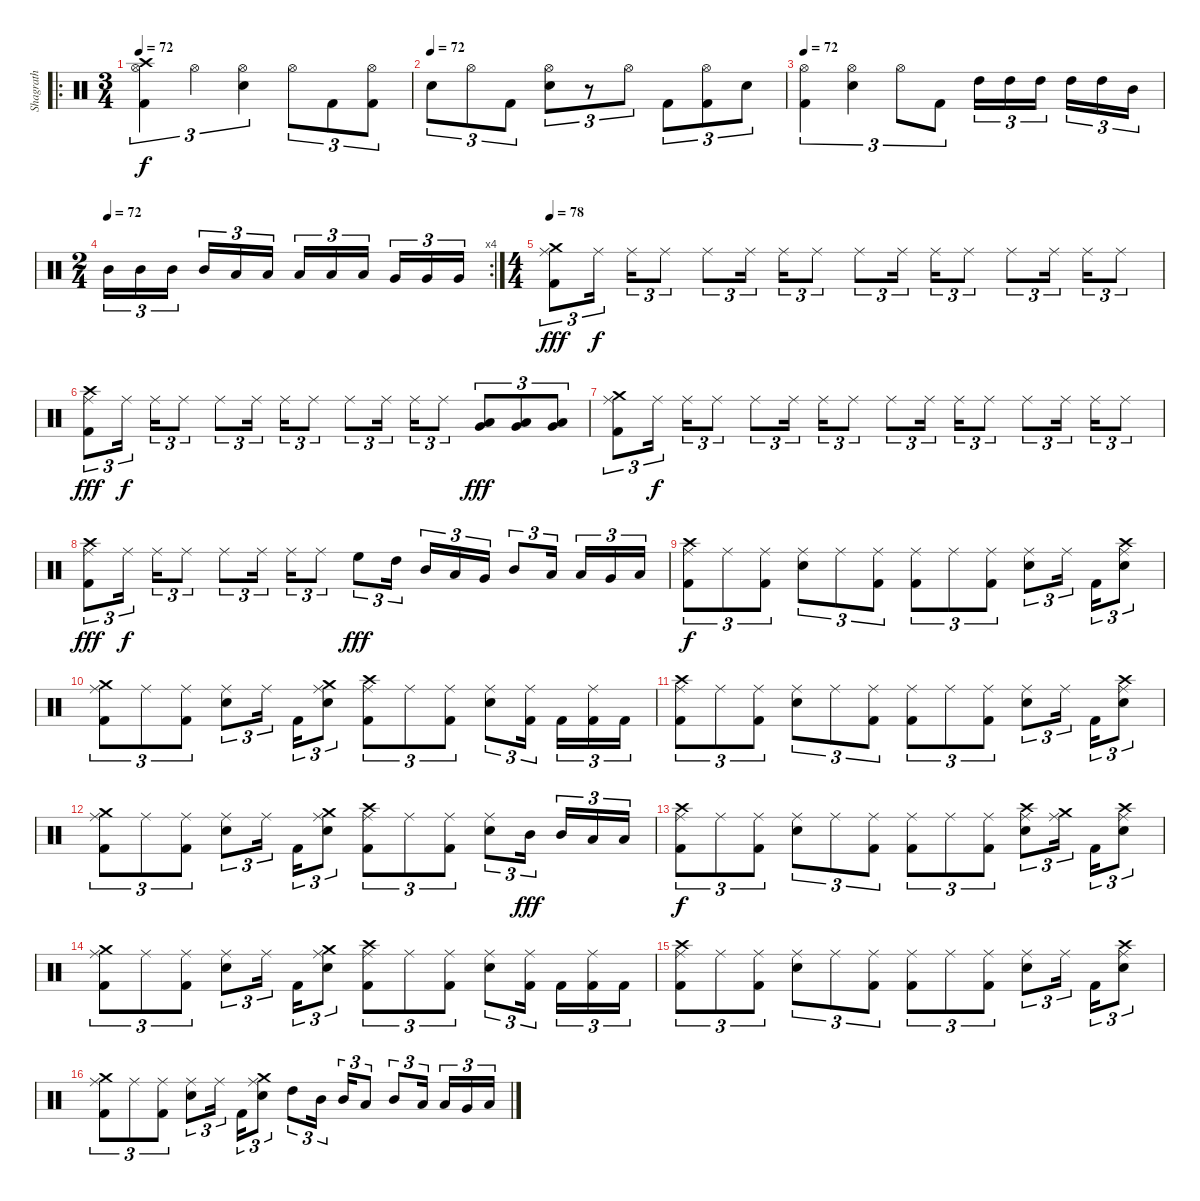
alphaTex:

\track ("Shagrath" "Shagrath") {instrument percussion}
\staff {score}
\articulation defaults
\ro
\ts (3 4)
\tempo 72
\clef neutral
\ks c
("Crash high (hit)" "Hi-Hat (open)" "Kick (hit) 2").4{tu (3 2) dy f} "Hi-Hat (open)".4{tu (3 2)} ("Hi-Hat (open)" "Electric Snare (hit)").4{tu (3 2)} "Hi-Hat (open)".8{tu (3 2)} "Kick (hit) 2".8{tu (3 2)} ("Hi-Hat (open)" "Kick (hit) 2").8{tu (3 2)} |
\tempo (72)
"Electric Snare (hit)".8{tu (3 2)} "Hi-Hat (open)".8{tu (3 2)} "Kick (hit) 2".8{tu (3 2)} ("Hi-Hat (open)" "Electric Snare (hit)").8{tu (3 2)} r.8{tu (3 2)} "Hi-Hat (open)".8{tu (3 2)} "Kick (hit) 2".8{tu (3 2)} ("Hi-Hat (open)" "Kick (hit) 2").8{tu (3 2)} "Electric Snare (hit)".8{tu (3 2)} |
\tempo 72
("Hi-Hat (open)" "Kick (hit) 2").4{tu (3 2)} ("Hi-Hat (open)" "Electric Snare (hit)").4{tu (3 2)} "Hi-Hat (open)".8{tu (3 2)} "Kick (hit) 2".8{tu (3 2)} "High Tom (hit)".16{tu (3 2)} "High Tom (hit)".16{tu (3 2)} "High Tom (hit)".16{tu (3 2)} "High Tom (hit)".16{tu (3 2)} "High Tom (hit)".16{tu (3 2)} "Mid Tom (hit)".16{tu (3 2)} |
\rc 4
\ts (2 4)
\tempo (72)
"Mid Tom (hit)".16{tu (3 2)} "Mid Tom (hit)".16{tu (3 2)} "Mid Tom (hit)".16{tu (3 2)} "Mid Tom (hit)".16{tu (3 2)} "Low Tom (hit)".16{tu (3 2)} "Low Tom (hit)".16{tu (3 2)} "Low Tom (hit)".16{tu (3 2)} "Low Tom (hit)".16{tu (3 2)} "Low Tom (hit)".16{tu (3 2)} "Very Low Tom (hit)".16{tu (3 2)} "Very Low Tom (hit)".16{tu (3 2)} "Very Low Tom (hit)".16{tu (3 2)} |
\ts (4 4)
\tempo 78
("Crash medium (hit)" "Ride (middle)" "Kick (hit) 2").8{tu (3 2) dy fff} "Ride (middle)".16{tu (3 2) dy f} "Ride (middle)".16{tu (3 2)} "Ride (middle)".8{tu (3 2)} "Ride (middle)".8{tu (3 2)} "Ride (middle)".16{tu (3 2)} "Ride (middle)".16{tu (3 2)} "Ride (middle)".8{tu (3 2)} "Ride (middle)".8{tu (3 2)} "Ride (middle)".16{tu (3 2)} "Ride (middle)".16{tu (3 2)} "Ride (middle)".8{tu (3 2)} "Ride (middle)".8{tu (3 2)} "Ride (middle)".16{tu (3 2)} "Ride (middle)".16{tu (3 2)} "Ride (middle)".8{tu (3 2)} |
("Crash high (hit)" "Ride (middle)" "Kick (hit) 2").8{tu (3 2) dy fff} "Ride (middle)".16{tu (3 2) dy f} "Ride (middle)".16{tu (3 2)} "Ride (middle)".8{tu (3 2)} "Ride (middle)".8{tu (3 2)} "Ride (middle)".16{tu (3 2)} "Ride (middle)".16{tu (3 2)} "Ride (middle)".8{tu (3 2)} "Ride (middle)".8{tu (3 2)} "Ride (middle)".16{tu (3 2)} "Ride (middle)".16{tu (3 2)} "Ride (middle)".8{tu (3 2)} ("Low Tom (hit)" "Very Low Tom (hit)").8{tu (3 2) dy fff} ("Low Tom (hit)" "Very Low Tom (hit)").8{tu (3 2)} ("Low Tom (hit)" "Very Low Tom (hit)").8{tu (3 2)} |
("Crash medium (hit)" "Ride (middle)" "Kick (hit) 2").8{tu (3 2)} "Ride (middle)".16{tu (3 2) dy f} "Ride (middle)".16{tu (3 2)} "Ride (middle)".8{tu (3 2)} "Ride (middle)".8{tu (3 2)} "Ride (middle)".16{tu (3 2)} "Ride (middle)".16{tu (3 2)} "Ride (middle)".8{tu (3 2)} "Ride (middle)".8{tu (3 2)} "Ride (middle)".16{tu (3 2)} "Ride (middle)".16{tu (3 2)} "Ride (middle)".8{tu (3 2)} "Ride (middle)".8{tu (3 2)} "Ride (middle)".16{tu (3 2)} "Ride (middle)".16{tu (3 2)} "Ride (middle)".8{tu (3 2)} |
("Crash high (hit)" "Ride (middle)" "Kick (hit) 2").8{tu (3 2) dy fff} "Ride (middle)".16{tu (3 2) dy f} "Ride (middle)".16{tu (3 2)} "Ride (middle)".8{tu (3 2)} "Ride (middle)".8{tu (3 2)} "Ride (middle)".16{tu (3 2)} "Ride (middle)".16{tu (3 2)} "Ride (middle)".8{tu (3 2)} "High Floor Tom (hit)".8{tu (3 2) dy fff} "High Tom (hit)".16{tu (3 2)} "Mid Tom (hit)".16{tu (3 2)} "Low Tom (hit)".16{tu (3 2)} "Very Low Tom (hit)".16{tu (3 2)} "Mid Tom (hit)".8{tu (3 2)} "Low Tom (hit)".16{tu (3 2)} "Low Tom (hit)".16{tu (3 2)} "Very Low Tom (hit)".16{tu (3 2)} "Low Floor Tom (hit)".16{tu (3 2)} |
("Crash high (hit)" "Ride (middle)" "Kick (hit) 2").8{tu (3 2) dy f} "Ride (middle)".8{tu (3 2)} ("Ride (middle)" "Kick (hit) 2").8{tu (3 2)} ("Ride (middle)" "Electric Snare (hit)").8{tu (3 2)} "Ride (middle)".8{tu (3 2)} ("Ride (middle)" "Kick (hit) 2").8{tu (3 2)} ("Ride (middle)" "Kick (hit) 2").8{tu (3 2)} "Ride (middle)".8{tu (3 2)} ("Ride (middle)" "Kick (hit) 2").8{tu (3 2)} ("Ride (middle)" "Electric Snare (hit)").8{tu (3 2)} "Ride (middle)".16{tu (3 2)} "Kick (hit) 2".16{tu (3 2)} ("Crash high (hit)" "Ride (middle)" "Electric Snare (hit)").8{tu (3 2)} |
("Crash medium (hit)" "Ride (middle)" "Kick (hit) 2").8{tu (3 2)} "Ride (middle)".8{tu (3 2)} ("Ride (middle)" "Kick (hit) 2").8{tu (3 2)} ("Ride (middle)" "Electric Snare (hit)").8{tu (3 2)} "Ride (middle)".16{tu (3 2)} "Kick (hit) 2".16{tu (3 2)} ("Crash medium (hit)" "Ride (middle)" "Electric Snare (hit)").8{tu (3 2)} ("Crash high (hit)" "Ride (middle)" "Kick (hit) 2").8{tu (3 2)} "Ride (middle)".8{tu (3 2)} ("Ride (middle)" "Kick (hit) 2").8{tu (3 2)} ("Ride (middle)" "Electric Snare (hit)").8{tu (3 2)} ("Ride (middle)" "Kick (hit) 2").16{tu (3 2)} "Kick (hit) 2".16{tu (3 2)} ("Ride (middle)" "Kick (hit) 2").16{tu (3 2)} "Kick (hit) 2".16{tu (3 2)} |
("Crash high (hit)" "Ride (middle)" "Kick (hit) 2").8{tu (3 2)} "Ride (middle)".8{tu (3 2)} ("Ride (middle)" "Kick (hit) 2").8{tu (3 2)} ("Ride (middle)" "Electric Snare (hit)").8{tu (3 2)} "Ride (middle)".8{tu (3 2)} ("Ride (middle)" "Kick (hit) 2").8{tu (3 2)} ("Ride (middle)" "Kick (hit) 2").8{tu (3 2)} "Ride (middle)".8{tu (3 2)} ("Ride (middle)" "Kick (hit) 2").8{tu (3 2)} ("Ride (middle)" "Electric Snare (hit)").8{tu (3 2)} "Ride (middle)".16{tu (3 2)} "Kick (hit) 2".16{tu (3 2)} ("Crash high (hit)" "Ride (middle)" "Electric Snare (hit)").8{tu (3 2)} |
("Crash medium (hit)" "Ride (middle)" "Kick (hit) 2").8{tu (3 2)} "Ride (middle)".8{tu (3 2)} ("Ride (middle)" "Kick (hit) 2").8{tu (3 2)} ("Ride (middle)" "Electric Snare (hit)").8{tu (3 2)} "Ride (middle)".16{tu (3 2)} "Kick (hit) 2".16{tu (3 2)} ("Crash medium (hit)" "Ride (middle)" "Electric Snare (hit)").8{tu (3 2)} ("Crash high (hit)" "Ride (middle)" "Kick (hit) 2").8{tu (3 2)} "Ride (middle)".8{tu (3 2)} ("Ride (middle)" "Kick (hit) 2").8{tu (3 2)} ("Ride (middle)" "Electric Snare (hit)").8{tu (3 2)} "Mid Tom (hit)".16{tu (3 2) dy fff} "Mid Tom (hit)".16{tu (3 2)} "Low Tom (hit)".16{tu (3 2)} "Low Tom (hit)".16{tu (3 2)} |
("Crash high (hit)" "Ride (middle)" "Kick (hit) 2").8{tu (3 2) dy f} "Ride (middle)".8{tu (3 2)} ("Ride (middle)" "Kick (hit) 2").8{tu (3 2)} ("Ride (middle)" "Electric Snare (hit)").8{tu (3 2)} "Ride (middle)".8{tu (3 2)} ("Ride (middle)" "Kick (hit) 2").8{tu (3 2)} ("Ride (middle)" "Kick (hit) 2").8{tu (3 2)} "Ride (middle)".8{tu (3 2)} ("Ride (middle)" "Kick (hit) 2").8{tu (3 2)} ("Crash high (hit)" "Ride (middle)" "Electric Snare (hit)").8{tu (3 2)} ("Crash medium (hit)" "Ride (middle)").16{tu (3 2)} "Kick (hit) 2".16{tu (3 2)} ("Crash high (hit)" "Ride (middle)" "Electric Snare (hit)").8{tu (3 2)} |
("Crash medium (hit)" "Ride (middle)" "Kick (hit) 2").8{tu (3 2)} "Ride (middle)".8{tu (3 2)} ("Ride (middle)" "Kick (hit) 2").8{tu (3 2)} ("Ride (middle)" "Electric Snare (hit)").8{tu (3 2)} "Ride (middle)".16{tu (3 2)} "Kick (hit) 2".16{tu (3 2)} ("Crash medium (hit)" "Ride (middle)" "Electric Snare (hit)").8{tu (3 2)} ("Crash high (hit)" "Ride (middle)" "Kick (hit) 2").8{tu (3 2)} "Ride (middle)".8{tu (3 2)} ("Ride (middle)" "Kick (hit) 2").8{tu (3 2)} ("Ride (middle)" "Electric Snare (hit)").8{tu (3 2)} ("Ride (middle)" "Kick (hit) 2").16{tu (3 2)} "Kick (hit) 2".16{tu (3 2)} ("Ride (middle)" "Kick (hit) 2").16{tu (3 2)} "Kick (hit) 2".16{tu (3 2)} |
("Crash high (hit)" "Ride (middle)" "Kick (hit) 2").8{tu (3 2)} "Ride (middle)".8{tu (3 2)} ("Ride (middle)" "Kick (hit) 2").8{tu (3 2)} ("Ride (middle)" "Electric Snare (hit)").8{tu (3 2)} "Ride (middle)".8{tu (3 2)} ("Ride (middle)" "Kick (hit) 2").8{tu (3 2)} ("Ride (middle)" "Kick (hit) 2").8{tu (3 2)} "Ride (middle)".8{tu (3 2)} ("Ride (middle)" "Kick (hit) 2").8{tu (3 2)} ("Ride (middle)" "Electric Snare (hit)").8{tu (3 2)} "Ride (middle)".16{tu (3 2)} "Kick (hit) 2".16{tu (3 2)} ("Crash high (hit)" "Ride (middle)" "Electric Snare (hit)").8{tu (3 2)} |
("Crash medium (hit)" "Ride (middle)" "Kick (hit) 2").8{tu (3 2)} "Ride (middle)".8{tu (3 2)} ("Ride (middle)" "Kick (hit) 2").8{tu (3 2)} ("Ride (middle)" "Electric Snare (hit)").8{tu (3 2)} "Ride (middle)".16{tu (3 2)} "Kick (hit) 2".16{tu (3 2)} ("Crash medium (hit)" "Ride (middle)" "Electric Snare (hit)").8{tu (3 2)} "High Tom (hit)".8{tu (3 2)} "Mid Tom (hit)".16{tu (3 2)} "Mid Tom (hit)".16{tu (3 2)} "Low Tom (hit)".8{tu (3 2)} "Mid Tom (hit)".8{tu (3 2)} "Low Tom (hit)".16{tu (3 2)} "Low Tom (hit)".16{tu (3 2)} "Very Low Tom (hit)".16{tu (3 2)} "Low Floor Tom (hit)".16{tu (3 2)}
